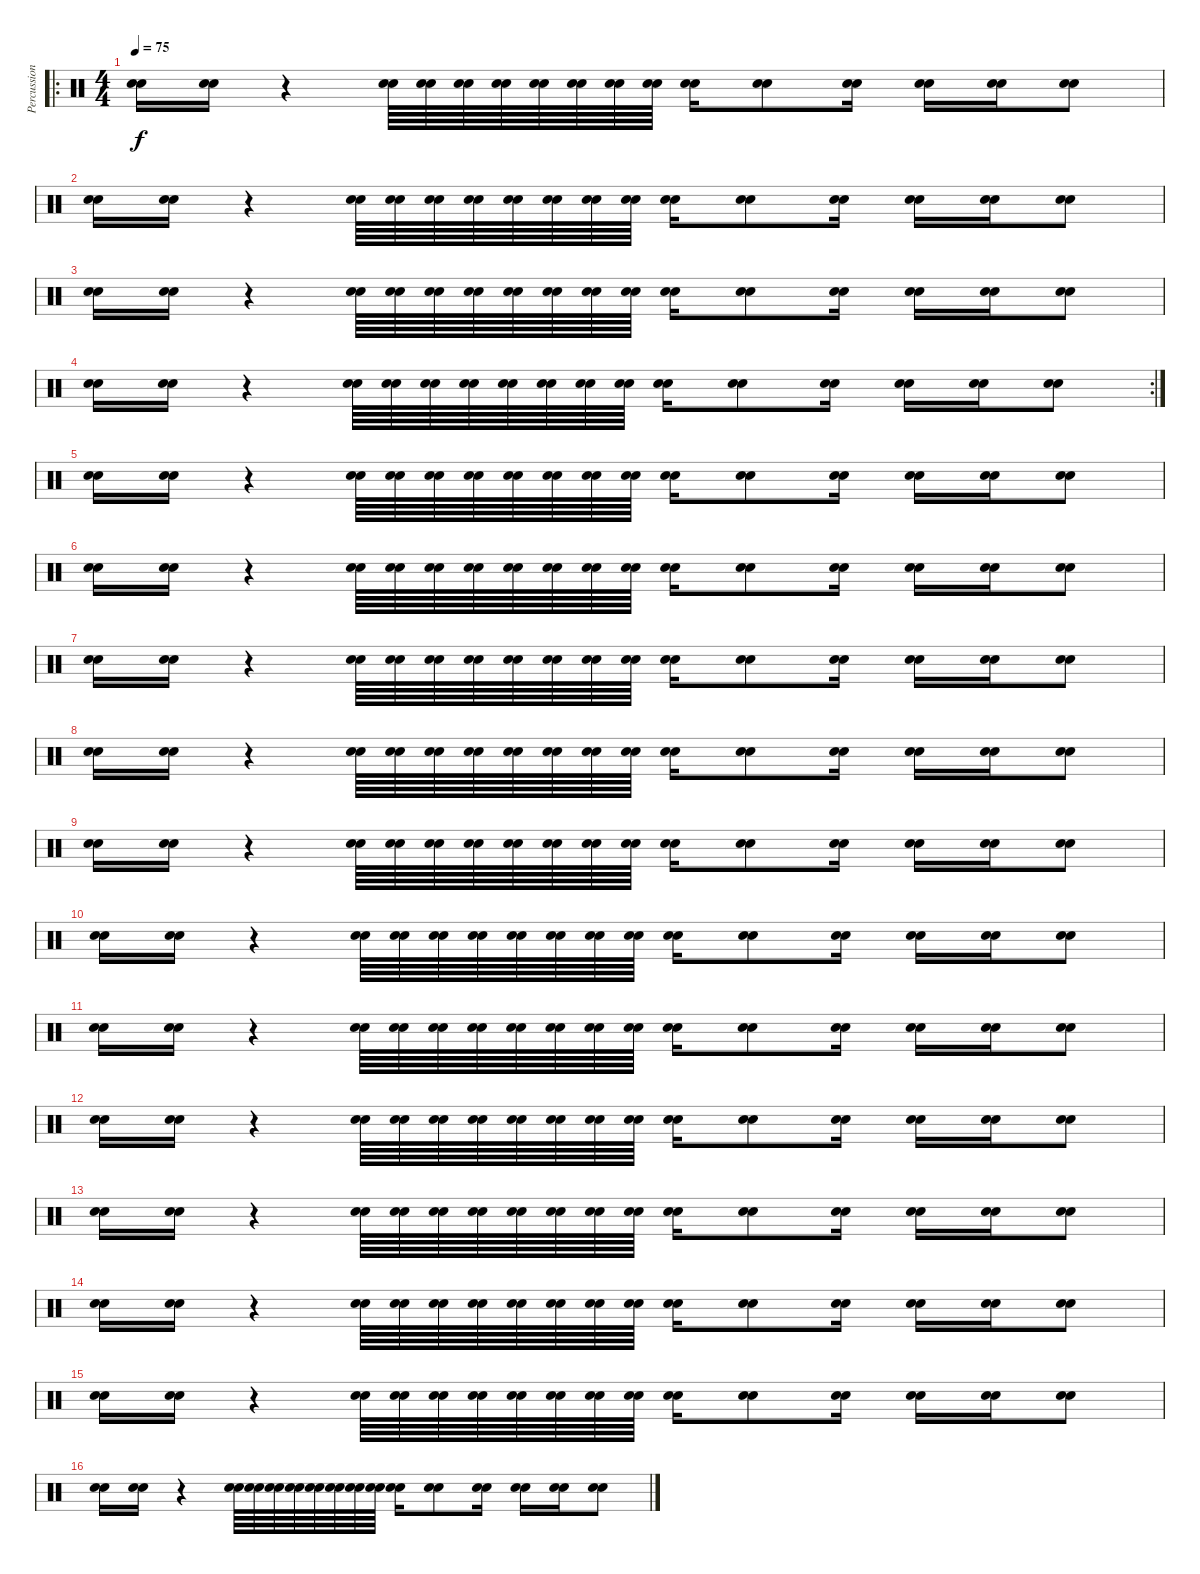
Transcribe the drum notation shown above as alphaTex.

\track ("Percussions" "Percussion") {instrument percussion}
\staff {score}
\articulation defaults
\ro
\ts (4 4)
\tempo 75
\clef neutral
\ks c
("Snare (hit) 2" "Electric Snare (hit)").16{dy f} ("Snare (hit) 2" "Electric Snare (hit)").16 r.4 ("Snare (hit) 2" "Electric Snare (hit)").64 ("Snare (hit) 2" "Electric Snare (hit)").64 ("Snare (hit) 2" "Electric Snare (hit)").64 ("Snare (hit) 2" "Electric Snare (hit)").64 ("Snare (hit) 2" "Electric Snare (hit)").64 ("Snare (hit) 2" "Electric Snare (hit)").64 ("Snare (hit) 2" "Electric Snare (hit)").64 ("Snare (hit) 2" "Electric Snare (hit)").64 ("Snare (hit) 2" "Electric Snare (hit)").16 ("Snare (hit) 2" "Electric Snare (hit)").8 ("Snare (hit) 2" "Electric Snare (hit)").16 ("Snare (hit) 2" "Electric Snare (hit)").16 ("Snare (hit) 2" "Electric Snare (hit)").16 ("Snare (hit) 2" "Electric Snare (hit)").8 |
("Snare (hit) 2" "Electric Snare (hit)").16 ("Snare (hit) 2" "Electric Snare (hit)").16 r.4 ("Snare (hit) 2" "Electric Snare (hit)").64 ("Snare (hit) 2" "Electric Snare (hit)").64 ("Snare (hit) 2" "Electric Snare (hit)").64 ("Snare (hit) 2" "Electric Snare (hit)").64 ("Snare (hit) 2" "Electric Snare (hit)").64 ("Snare (hit) 2" "Electric Snare (hit)").64 ("Snare (hit) 2" "Electric Snare (hit)").64 ("Snare (hit) 2" "Electric Snare (hit)").64 ("Snare (hit) 2" "Electric Snare (hit)").16 ("Snare (hit) 2" "Electric Snare (hit)").8 ("Snare (hit) 2" "Electric Snare (hit)").16 ("Snare (hit) 2" "Electric Snare (hit)").16 ("Snare (hit) 2" "Electric Snare (hit)").16 ("Snare (hit) 2" "Electric Snare (hit)").8 |
("Snare (hit) 2" "Electric Snare (hit)").16 ("Snare (hit) 2" "Electric Snare (hit)").16 r.4 ("Snare (hit) 2" "Electric Snare (hit)").64 ("Snare (hit) 2" "Electric Snare (hit)").64 ("Snare (hit) 2" "Electric Snare (hit)").64 ("Snare (hit) 2" "Electric Snare (hit)").64 ("Snare (hit) 2" "Electric Snare (hit)").64 ("Snare (hit) 2" "Electric Snare (hit)").64 ("Snare (hit) 2" "Electric Snare (hit)").64 ("Snare (hit) 2" "Electric Snare (hit)").64 ("Snare (hit) 2" "Electric Snare (hit)").16 ("Snare (hit) 2" "Electric Snare (hit)").8 ("Snare (hit) 2" "Electric Snare (hit)").16 ("Snare (hit) 2" "Electric Snare (hit)").16 ("Snare (hit) 2" "Electric Snare (hit)").16 ("Snare (hit) 2" "Electric Snare (hit)").8 |
\rc 2
("Snare (hit) 2" "Electric Snare (hit)").16 ("Snare (hit) 2" "Electric Snare (hit)").16 r.4 ("Snare (hit) 2" "Electric Snare (hit)").64 ("Snare (hit) 2" "Electric Snare (hit)").64 ("Snare (hit) 2" "Electric Snare (hit)").64 ("Snare (hit) 2" "Electric Snare (hit)").64 ("Snare (hit) 2" "Electric Snare (hit)").64 ("Snare (hit) 2" "Electric Snare (hit)").64 ("Snare (hit) 2" "Electric Snare (hit)").64 ("Snare (hit) 2" "Electric Snare (hit)").64 ("Snare (hit) 2" "Electric Snare (hit)").16 ("Snare (hit) 2" "Electric Snare (hit)").8 ("Snare (hit) 2" "Electric Snare (hit)").16 ("Snare (hit) 2" "Electric Snare (hit)").16 ("Snare (hit) 2" "Electric Snare (hit)").16 ("Snare (hit) 2" "Electric Snare (hit)").8 |
("Snare (hit) 2" "Electric Snare (hit)").16 ("Snare (hit) 2" "Electric Snare (hit)").16 r.4 ("Snare (hit) 2" "Electric Snare (hit)").64 ("Snare (hit) 2" "Electric Snare (hit)").64 ("Snare (hit) 2" "Electric Snare (hit)").64 ("Snare (hit) 2" "Electric Snare (hit)").64 ("Snare (hit) 2" "Electric Snare (hit)").64 ("Snare (hit) 2" "Electric Snare (hit)").64 ("Snare (hit) 2" "Electric Snare (hit)").64 ("Snare (hit) 2" "Electric Snare (hit)").64 ("Snare (hit) 2" "Electric Snare (hit)").16 ("Snare (hit) 2" "Electric Snare (hit)").8 ("Snare (hit) 2" "Electric Snare (hit)").16 ("Snare (hit) 2" "Electric Snare (hit)").16 ("Snare (hit) 2" "Electric Snare (hit)").16 ("Snare (hit) 2" "Electric Snare (hit)").8 |
("Snare (hit) 2" "Electric Snare (hit)").16 ("Snare (hit) 2" "Electric Snare (hit)").16 r.4 ("Snare (hit) 2" "Electric Snare (hit)").64 ("Snare (hit) 2" "Electric Snare (hit)").64 ("Snare (hit) 2" "Electric Snare (hit)").64 ("Snare (hit) 2" "Electric Snare (hit)").64 ("Snare (hit) 2" "Electric Snare (hit)").64 ("Snare (hit) 2" "Electric Snare (hit)").64 ("Snare (hit) 2" "Electric Snare (hit)").64 ("Snare (hit) 2" "Electric Snare (hit)").64 ("Snare (hit) 2" "Electric Snare (hit)").16 ("Snare (hit) 2" "Electric Snare (hit)").8 ("Snare (hit) 2" "Electric Snare (hit)").16 ("Snare (hit) 2" "Electric Snare (hit)").16 ("Snare (hit) 2" "Electric Snare (hit)").16 ("Snare (hit) 2" "Electric Snare (hit)").8 |
("Snare (hit) 2" "Electric Snare (hit)").16 ("Snare (hit) 2" "Electric Snare (hit)").16 r.4 ("Snare (hit) 2" "Electric Snare (hit)").64 ("Snare (hit) 2" "Electric Snare (hit)").64 ("Snare (hit) 2" "Electric Snare (hit)").64 ("Snare (hit) 2" "Electric Snare (hit)").64 ("Snare (hit) 2" "Electric Snare (hit)").64 ("Snare (hit) 2" "Electric Snare (hit)").64 ("Snare (hit) 2" "Electric Snare (hit)").64 ("Snare (hit) 2" "Electric Snare (hit)").64 ("Snare (hit) 2" "Electric Snare (hit)").16 ("Snare (hit) 2" "Electric Snare (hit)").8 ("Snare (hit) 2" "Electric Snare (hit)").16 ("Snare (hit) 2" "Electric Snare (hit)").16 ("Snare (hit) 2" "Electric Snare (hit)").16 ("Snare (hit) 2" "Electric Snare (hit)").8 |
("Snare (hit) 2" "Electric Snare (hit)").16 ("Snare (hit) 2" "Electric Snare (hit)").16 r.4 ("Snare (hit) 2" "Electric Snare (hit)").64 ("Snare (hit) 2" "Electric Snare (hit)").64 ("Snare (hit) 2" "Electric Snare (hit)").64 ("Snare (hit) 2" "Electric Snare (hit)").64 ("Snare (hit) 2" "Electric Snare (hit)").64 ("Snare (hit) 2" "Electric Snare (hit)").64 ("Snare (hit) 2" "Electric Snare (hit)").64 ("Snare (hit) 2" "Electric Snare (hit)").64 ("Snare (hit) 2" "Electric Snare (hit)").16 ("Snare (hit) 2" "Electric Snare (hit)").8 ("Snare (hit) 2" "Electric Snare (hit)").16 ("Snare (hit) 2" "Electric Snare (hit)").16 ("Snare (hit) 2" "Electric Snare (hit)").16 ("Snare (hit) 2" "Electric Snare (hit)").8 |
("Snare (hit) 2" "Electric Snare (hit)").16 ("Snare (hit) 2" "Electric Snare (hit)").16 r.4 ("Snare (hit) 2" "Electric Snare (hit)").64 ("Snare (hit) 2" "Electric Snare (hit)").64 ("Snare (hit) 2" "Electric Snare (hit)").64 ("Snare (hit) 2" "Electric Snare (hit)").64 ("Snare (hit) 2" "Electric Snare (hit)").64 ("Snare (hit) 2" "Electric Snare (hit)").64 ("Snare (hit) 2" "Electric Snare (hit)").64 ("Snare (hit) 2" "Electric Snare (hit)").64 ("Snare (hit) 2" "Electric Snare (hit)").16 ("Snare (hit) 2" "Electric Snare (hit)").8 ("Snare (hit) 2" "Electric Snare (hit)").16 ("Snare (hit) 2" "Electric Snare (hit)").16 ("Snare (hit) 2" "Electric Snare (hit)").16 ("Snare (hit) 2" "Electric Snare (hit)").8 |
("Snare (hit) 2" "Electric Snare (hit)").16 ("Snare (hit) 2" "Electric Snare (hit)").16 r.4 ("Snare (hit) 2" "Electric Snare (hit)").64 ("Snare (hit) 2" "Electric Snare (hit)").64 ("Snare (hit) 2" "Electric Snare (hit)").64 ("Snare (hit) 2" "Electric Snare (hit)").64 ("Snare (hit) 2" "Electric Snare (hit)").64 ("Snare (hit) 2" "Electric Snare (hit)").64 ("Snare (hit) 2" "Electric Snare (hit)").64 ("Snare (hit) 2" "Electric Snare (hit)").64 ("Snare (hit) 2" "Electric Snare (hit)").16 ("Snare (hit) 2" "Electric Snare (hit)").8 ("Snare (hit) 2" "Electric Snare (hit)").16 ("Snare (hit) 2" "Electric Snare (hit)").16 ("Snare (hit) 2" "Electric Snare (hit)").16 ("Snare (hit) 2" "Electric Snare (hit)").8 |
("Snare (hit) 2" "Electric Snare (hit)").16 ("Snare (hit) 2" "Electric Snare (hit)").16 r.4 ("Snare (hit) 2" "Electric Snare (hit)").64 ("Snare (hit) 2" "Electric Snare (hit)").64 ("Snare (hit) 2" "Electric Snare (hit)").64 ("Snare (hit) 2" "Electric Snare (hit)").64 ("Snare (hit) 2" "Electric Snare (hit)").64 ("Snare (hit) 2" "Electric Snare (hit)").64 ("Snare (hit) 2" "Electric Snare (hit)").64 ("Snare (hit) 2" "Electric Snare (hit)").64 ("Snare (hit) 2" "Electric Snare (hit)").16 ("Snare (hit) 2" "Electric Snare (hit)").8 ("Snare (hit) 2" "Electric Snare (hit)").16 ("Snare (hit) 2" "Electric Snare (hit)").16 ("Snare (hit) 2" "Electric Snare (hit)").16 ("Snare (hit) 2" "Electric Snare (hit)").8 |
("Snare (hit) 2" "Electric Snare (hit)").16 ("Snare (hit) 2" "Electric Snare (hit)").16 r.4 ("Snare (hit) 2" "Electric Snare (hit)").64 ("Snare (hit) 2" "Electric Snare (hit)").64 ("Snare (hit) 2" "Electric Snare (hit)").64 ("Snare (hit) 2" "Electric Snare (hit)").64 ("Snare (hit) 2" "Electric Snare (hit)").64 ("Snare (hit) 2" "Electric Snare (hit)").64 ("Snare (hit) 2" "Electric Snare (hit)").64 ("Snare (hit) 2" "Electric Snare (hit)").64 ("Snare (hit) 2" "Electric Snare (hit)").16 ("Snare (hit) 2" "Electric Snare (hit)").8 ("Snare (hit) 2" "Electric Snare (hit)").16 ("Snare (hit) 2" "Electric Snare (hit)").16 ("Snare (hit) 2" "Electric Snare (hit)").16 ("Snare (hit) 2" "Electric Snare (hit)").8 |
("Snare (hit) 2" "Electric Snare (hit)").16 ("Snare (hit) 2" "Electric Snare (hit)").16 r.4 ("Snare (hit) 2" "Electric Snare (hit)").64 ("Snare (hit) 2" "Electric Snare (hit)").64 ("Snare (hit) 2" "Electric Snare (hit)").64 ("Snare (hit) 2" "Electric Snare (hit)").64 ("Snare (hit) 2" "Electric Snare (hit)").64 ("Snare (hit) 2" "Electric Snare (hit)").64 ("Snare (hit) 2" "Electric Snare (hit)").64 ("Snare (hit) 2" "Electric Snare (hit)").64 ("Snare (hit) 2" "Electric Snare (hit)").16 ("Snare (hit) 2" "Electric Snare (hit)").8 ("Snare (hit) 2" "Electric Snare (hit)").16 ("Snare (hit) 2" "Electric Snare (hit)").16 ("Snare (hit) 2" "Electric Snare (hit)").16 ("Snare (hit) 2" "Electric Snare (hit)").8 |
("Snare (hit) 2" "Electric Snare (hit)").16 ("Snare (hit) 2" "Electric Snare (hit)").16 r.4 ("Snare (hit) 2" "Electric Snare (hit)").64 ("Snare (hit) 2" "Electric Snare (hit)").64 ("Snare (hit) 2" "Electric Snare (hit)").64 ("Snare (hit) 2" "Electric Snare (hit)").64 ("Snare (hit) 2" "Electric Snare (hit)").64 ("Snare (hit) 2" "Electric Snare (hit)").64 ("Snare (hit) 2" "Electric Snare (hit)").64 ("Snare (hit) 2" "Electric Snare (hit)").64 ("Snare (hit) 2" "Electric Snare (hit)").16 ("Snare (hit) 2" "Electric Snare (hit)").8 ("Snare (hit) 2" "Electric Snare (hit)").16 ("Snare (hit) 2" "Electric Snare (hit)").16 ("Snare (hit) 2" "Electric Snare (hit)").16 ("Snare (hit) 2" "Electric Snare (hit)").8 |
("Snare (hit) 2" "Electric Snare (hit)").16 ("Snare (hit) 2" "Electric Snare (hit)").16 r.4 ("Snare (hit) 2" "Electric Snare (hit)").64 ("Snare (hit) 2" "Electric Snare (hit)").64 ("Snare (hit) 2" "Electric Snare (hit)").64 ("Snare (hit) 2" "Electric Snare (hit)").64 ("Snare (hit) 2" "Electric Snare (hit)").64 ("Snare (hit) 2" "Electric Snare (hit)").64 ("Snare (hit) 2" "Electric Snare (hit)").64 ("Snare (hit) 2" "Electric Snare (hit)").64 ("Snare (hit) 2" "Electric Snare (hit)").16 ("Snare (hit) 2" "Electric Snare (hit)").8 ("Snare (hit) 2" "Electric Snare (hit)").16 ("Snare (hit) 2" "Electric Snare (hit)").16 ("Snare (hit) 2" "Electric Snare (hit)").16 ("Snare (hit) 2" "Electric Snare (hit)").8 |
("Snare (hit) 2" "Electric Snare (hit)").16 ("Snare (hit) 2" "Electric Snare (hit)").16 r.4 ("Snare (hit) 2" "Electric Snare (hit)").64 ("Snare (hit) 2" "Electric Snare (hit)").64 ("Snare (hit) 2" "Electric Snare (hit)").64 ("Snare (hit) 2" "Electric Snare (hit)").64 ("Snare (hit) 2" "Electric Snare (hit)").64 ("Snare (hit) 2" "Electric Snare (hit)").64 ("Snare (hit) 2" "Electric Snare (hit)").64 ("Snare (hit) 2" "Electric Snare (hit)").64 ("Snare (hit) 2" "Electric Snare (hit)").16 ("Snare (hit) 2" "Electric Snare (hit)").8 ("Snare (hit) 2" "Electric Snare (hit)").16 ("Snare (hit) 2" "Electric Snare (hit)").16 ("Snare (hit) 2" "Electric Snare (hit)").16 ("Snare (hit) 2" "Electric Snare (hit)").8
